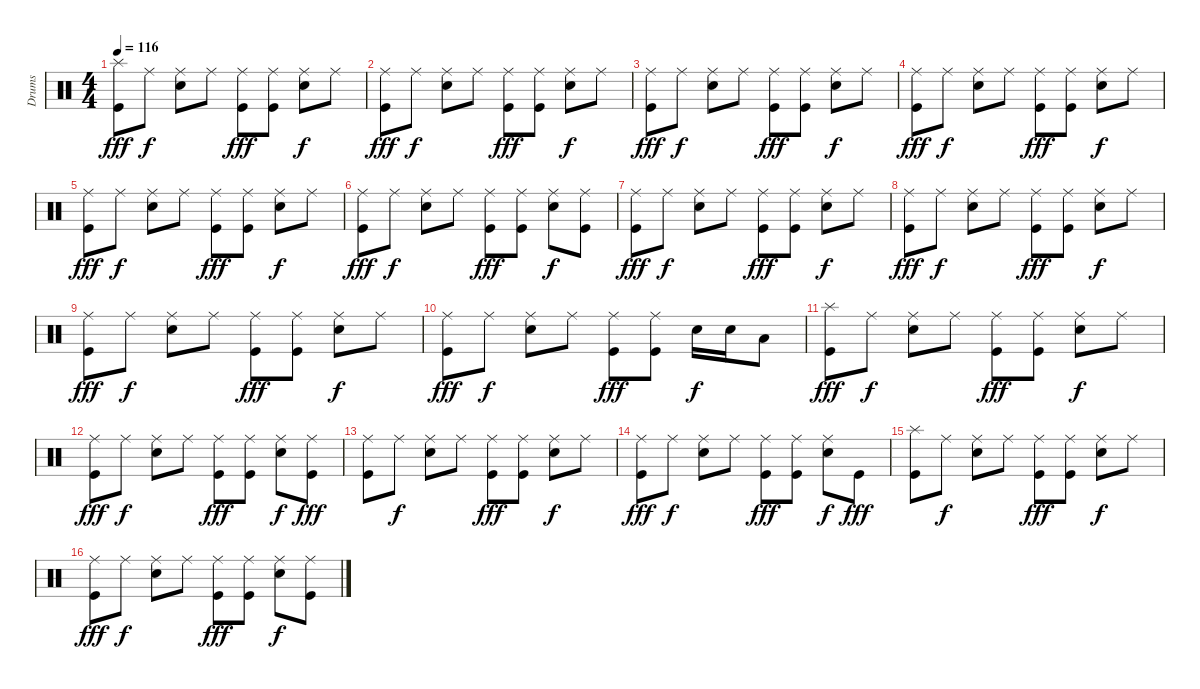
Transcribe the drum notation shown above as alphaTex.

\track ("Drums" "Drums") {instrument percussion}
\staff {score}
\articulation defaults
\ts (4 4)
\tempo 116
\clef neutral
\ks c
("Splash (hit)" "Kick (hit)").8{dy fff} "Ride (middle)".8{dy f} ("Ride (middle)" "Snare (hit) 2").8 "Ride (middle)".8 ("Ride (middle)" "Kick (hit)").8{dy fff} ("Ride (middle)" "Kick (hit)").8 ("Ride (middle)" "Snare (hit) 2").8{dy f} "Ride (middle)".8 |
("Ride (middle)" "Kick (hit)").8{dy fff} "Ride (middle)".8{dy f} ("Ride (middle)" "Snare (hit) 2").8 "Ride (middle)".8 ("Ride (middle)" "Kick (hit)").8{dy fff} ("Ride (middle)" "Kick (hit)").8 ("Ride (middle)" "Snare (hit) 2").8{dy f} "Ride (middle)".8 |
("Ride (middle)" "Kick (hit)").8{dy fff} "Ride (middle)".8{dy f} ("Ride (middle)" "Snare (hit) 2").8 "Ride (middle)".8 ("Ride (middle)" "Kick (hit)").8{dy fff} ("Ride (middle)" "Kick (hit)").8 ("Ride (middle)" "Snare (hit) 2").8{dy f} "Ride (middle)".8 |
("Ride (middle)" "Kick (hit)").8{dy fff} "Ride (middle)".8{dy f} ("Ride (middle)" "Snare (hit) 2").8 "Ride (middle)".8 ("Ride (middle)" "Kick (hit)").8{dy fff} ("Ride (middle)" "Kick (hit)").8 ("Ride (middle)" "Snare (hit) 2").8{dy f} "Ride (middle)".8 |
("Ride (middle)" "Kick (hit)").8{dy fff} "Ride (middle)".8{dy f} ("Ride (middle)" "Snare (hit) 2").8 "Ride (middle)".8 ("Ride (middle)" "Kick (hit)").8{dy fff} ("Ride (middle)" "Kick (hit)").8 ("Ride (middle)" "Snare (hit) 2").8{dy f} "Ride (middle)".8 |
("Ride (middle)" "Kick (hit)").8{dy fff} "Ride (middle)".8{dy f} ("Ride (middle)" "Snare (hit) 2").8 "Ride (middle)".8 ("Ride (middle)" "Kick (hit)").8{dy fff} ("Ride (middle)" "Kick (hit)").8 ("Ride (middle)" "Snare (hit) 2").8{dy f} ("Ride (middle)" "Kick (hit)").8 |
("Ride (middle)" "Kick (hit)").8{dy fff} "Ride (middle)".8{dy f} ("Ride (middle)" "Snare (hit) 2").8 "Ride (middle)".8 ("Ride (middle)" "Kick (hit)").8{dy fff} ("Ride (middle)" "Kick (hit)").8 ("Ride (middle)" "Snare (hit) 2").8{dy f} "Ride (middle)".8 |
("Ride (middle)" "Kick (hit)").8{dy fff} "Ride (middle)".8{dy f} ("Ride (middle)" "Snare (hit) 2").8 "Ride (middle)".8 ("Ride (middle)" "Kick (hit)").8{dy fff} ("Ride (middle)" "Kick (hit)").8 ("Ride (middle)" "Snare (hit) 2").8{dy f} "Ride (middle)".8 |
("Ride (middle)" "Kick (hit)").8{dy fff} "Ride (middle)".8{dy f} ("Ride (middle)" "Snare (hit) 2").8 "Ride (middle)".8 ("Ride (middle)" "Kick (hit)").8{dy fff} ("Ride (middle)" "Kick (hit)").8 ("Ride (middle)" "Snare (hit) 2").8{dy f} "Ride (middle)".8 |
("Ride (middle)" "Kick (hit)").8{dy fff} "Ride (middle)".8{dy f} ("Ride (middle)" "Snare (hit) 2").8 "Ride (middle)".8 ("Ride (middle)" "Kick (hit)").8{dy fff} ("Ride (middle)" "Kick (hit)").8 "Snare (hit) 2".16{dy f} "Snare (hit) 2".16 "Low Tom (hit)".8 |
("Splash (hit)" "Kick (hit)").8{dy fff} "Ride (middle)".8{dy f} ("Ride (middle)" "Snare (hit) 2").8 "Ride (middle)".8 ("Ride (middle)" "Kick (hit)").8{dy fff} ("Ride (middle)" "Kick (hit)").8 ("Ride (middle)" "Snare (hit) 2").8{dy f} "Ride (middle)".8 |
("Ride (middle)" "Kick (hit)").8{dy fff} "Ride (middle)".8{dy f} ("Ride (middle)" "Snare (hit) 2").8 "Ride (middle)".8 ("Ride (middle)" "Kick (hit)").8{dy fff} ("Ride (middle)" "Kick (hit)").8 ("Ride (middle)" "Snare (hit) 2").8{dy f} ("Ride (middle)" "Kick (hit)").8{dy fff} |
("Ride (middle)" "Kick (hit)").8 "Ride (middle)".8{dy f} ("Ride (middle)" "Snare (hit) 2").8 "Ride (middle)".8 ("Ride (middle)" "Kick (hit)").8{dy fff} ("Ride (middle)" "Kick (hit)").8 ("Ride (middle)" "Snare (hit) 2").8{dy f} "Ride (middle)".8 |
("Ride (middle)" "Kick (hit)").8{dy fff} "Ride (middle)".8{dy f} ("Ride (middle)" "Snare (hit) 2").8 "Ride (middle)".8 ("Ride (middle)" "Kick (hit)").8{dy fff} ("Ride (middle)" "Kick (hit)").8 ("Ride (middle)" "Snare (hit) 2").8{dy f} "Kick (hit)".8{dy fff} |
("Splash (hit)" "Kick (hit)").8 "Ride (middle)".8{dy f} ("Ride (middle)" "Snare (hit) 2").8 "Ride (middle)".8 ("Ride (middle)" "Kick (hit)").8{dy fff} ("Ride (middle)" "Kick (hit)").8 ("Ride (middle)" "Snare (hit) 2").8{dy f} "Ride (middle)".8 |
("Ride (middle)" "Kick (hit)").8{dy fff} "Ride (middle)".8{dy f} ("Ride (middle)" "Snare (hit) 2").8 "Ride (middle)".8 ("Ride (middle)" "Kick (hit)").8{dy fff} ("Ride (middle)" "Kick (hit)").8 ("Ride (middle)" "Snare (hit) 2").8{dy f} ("Ride (middle)" "Kick (hit)").8
